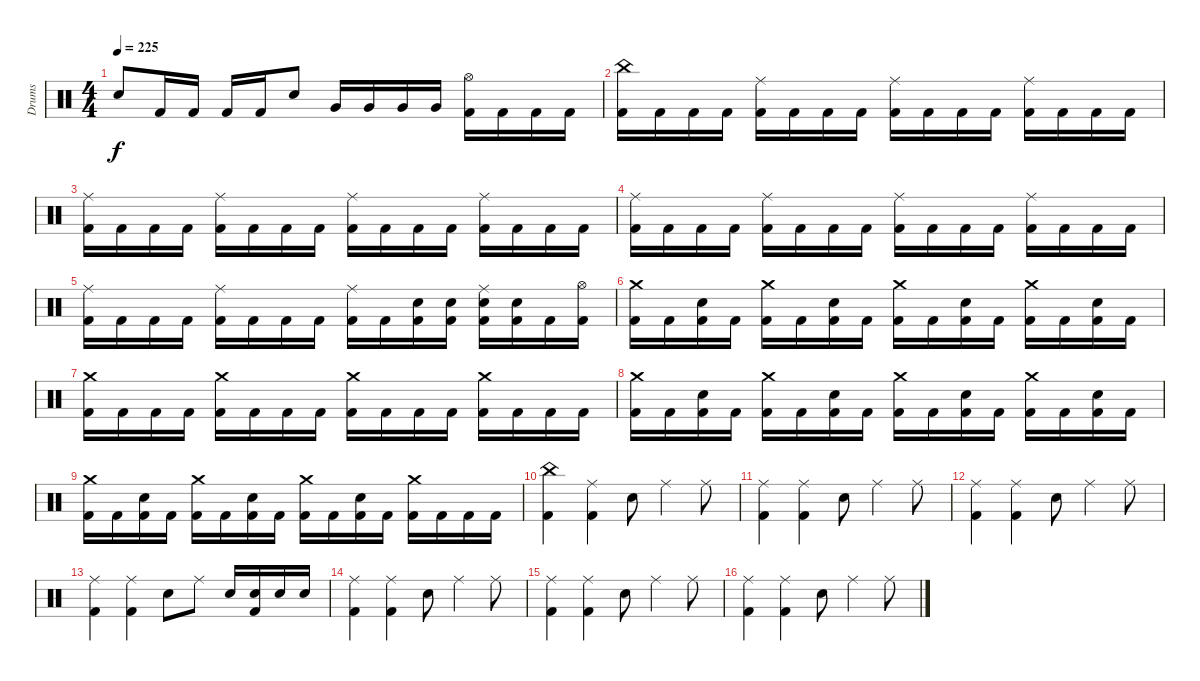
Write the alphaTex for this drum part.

\track ("Drums" "Drums") {instrument percussion}
\staff {score}
\articulation defaults
\ts (4 4)
\tempo 225
\clef neutral
\ks c "Electric Snare (hit)".8{dy f} "Kick (hit) 2".16 "Kick (hit) 2".16 "Kick (hit) 2".16 "Kick (hit) 2".16 "Electric Snare (hit)".8 "Very Low Tom (hit)".16 "Very Low Tom (hit)".16 "Very Low Tom (hit)".16 "Very Low Tom (hit)".16
("Hi-Hat (open)" "Kick (hit) 2").16 "Kick (hit) 2".16 "Kick (hit) 2".16 "Kick (hit) 2".16 |
("China (hit)" "Kick (hit) 2").16 "Kick (hit) 2".16 "Kick (hit) 2".16 "Kick (hit) 2".16 ("Ride (middle)" "Kick (hit) 2").16 "Kick (hit) 2".16 "Kick (hit) 2".16 "Kick (hit) 2".16 ("Ride (middle)" "Kick (hit) 2").16 "Kick (hit) 2".16 "Kick (hit) 2".16 "Kick (hit) 2".16 ("Ride (middle)" "Kick (hit) 2").16 "Kick (hit) 2".16 "Kick (hit) 2".16 "Kick (hit) 2".16 |
("Ride (middle)" "Kick (hit) 2").16 "Kick (hit) 2".16 "Kick (hit) 2".16 "Kick (hit) 2".16 ("Ride (middle)" "Kick (hit) 2").16 "Kick (hit) 2".16 "Kick (hit) 2".16 "Kick (hit) 2".16 ("Ride (middle)" "Kick (hit) 2").16 "Kick (hit) 2".16 "Kick (hit) 2".16 "Kick (hit) 2".16 ("Ride (middle)" "Kick (hit) 2").16 "Kick (hit) 2".16 "Kick (hit) 2".16 "Kick (hit) 2".16 |
("Ride (middle)" "Kick (hit) 2").16 "Kick (hit) 2".16 "Kick (hit) 2".16 "Kick (hit) 2".16 ("Ride (middle)" "Kick (hit) 2").16 "Kick (hit) 2".16 "Kick (hit) 2".16 "Kick (hit) 2".16 ("Ride (middle)" "Kick (hit) 2").16 "Kick (hit) 2".16 "Kick (hit) 2".16 "Kick (hit) 2".16 ("Ride (middle)" "Kick (hit) 2").16 "Kick (hit) 2".16 "Kick (hit) 2".16 "Kick (hit) 2".16 |
("Ride (middle)" "Kick (hit) 2").16 "Kick (hit) 2".16 "Kick (hit) 2".16 "Kick (hit) 2".16 ("Ride (middle)" "Kick (hit) 2").16 "Kick (hit) 2".16 "Kick (hit) 2".16 "Kick (hit) 2".16 ("Ride (middle)" "Kick (hit) 2").16 "Kick (hit) 2".16 ("Electric Snare (hit)" "Kick (hit) 2").16 ("Electric Snare (hit)" "Kick (hit) 2").16 ("Ride (middle)" "Electric Snare (hit)" "Kick (hit) 2").16 ("Electric Snare (hit)" "Kick (hit) 2").16 "Kick (hit) 2".16 ("Hi-Hat (open)" "Kick (hit) 2").16 |
("Crash medium (hit)" "Kick (hit) 2").16 "Kick (hit) 2".16 ("Electric Snare (hit)" "Kick (hit) 2").16 "Kick (hit) 2".16 ("Crash medium (hit)" "Kick (hit) 2").16 "Kick (hit) 2".16 ("Electric Snare (hit)" "Kick (hit) 2").16 "Kick (hit) 2".16 ("Crash medium (hit)" "Kick (hit) 2").16 "Kick (hit) 2".16 ("Electric Snare (hit)" "Kick (hit) 2").16 "Kick (hit) 2".16 ("Crash medium (hit)" "Kick (hit) 2").16 "Kick (hit) 2".16 ("Electric Snare (hit)" "Kick (hit) 2").16 "Kick (hit) 2".16 |
("Crash medium (hit)" "Kick (hit) 2").16 "Kick (hit) 2".16 "Kick (hit) 2".16 "Kick (hit) 2".16 ("Crash medium (hit)" "Kick (hit) 2").16 "Kick (hit) 2".16 "Kick (hit) 2".16 "Kick (hit) 2".16 ("Crash medium (hit)" "Kick (hit) 2").16 "Kick (hit) 2".16 "Kick (hit) 2".16 "Kick (hit) 2".16 ("Crash medium (hit)" "Kick (hit) 2").16 "Kick (hit) 2".16 "Kick (hit) 2".16 "Kick (hit) 2".16 |
("Crash medium (hit)" "Kick (hit) 2").16 "Kick (hit) 2".16 ("Electric Snare (hit)" "Kick (hit) 2").16 "Kick (hit) 2".16 ("Crash medium (hit)" "Kick (hit) 2").16 "Kick (hit) 2".16 ("Electric Snare (hit)" "Kick (hit) 2").16 "Kick (hit) 2".16 ("Crash medium (hit)" "Kick (hit) 2").16 "Kick (hit) 2".16 ("Electric Snare (hit)" "Kick (hit) 2").16 "Kick (hit) 2".16 ("Crash medium (hit)" "Kick (hit) 2").16 "Kick (hit) 2".16 ("Electric Snare (hit)" "Kick (hit) 2").16 "Kick (hit) 2".16 |
("Crash medium (hit)" "Kick (hit) 2").16 "Kick (hit) 2".16 ("Electric Snare (hit)" "Kick (hit) 2").16 "Kick (hit) 2".16 ("Crash medium (hit)" "Kick (hit) 2").16 "Kick (hit) 2".16 ("Electric Snare (hit)" "Kick (hit) 2").16 "Kick (hit) 2".16 ("Crash medium (hit)" "Kick (hit) 2").16 "Kick (hit) 2".16 ("Electric Snare (hit)" "Kick (hit) 2").16 "Kick (hit) 2".16 ("Crash medium (hit)" "Kick (hit) 2").16 "Kick (hit) 2".16 "Kick (hit) 2".16 "Kick (hit) 2".16 |
("China (hit)" "Kick (hit) 2").4 ("Ride (middle)" "Kick (hit) 2").4 "Electric Snare (hit)".8 "Ride (middle)".4 "Ride (middle)".8 |
("Ride (middle)" "Kick (hit) 2").4 ("Ride (middle)" "Kick (hit) 2").4 "Electric Snare (hit)".8 "Ride (middle)".4 "Ride (middle)".8 |
("Ride (middle)" "Kick (hit) 2").4 ("Ride (middle)" "Kick (hit) 2").4 "Electric Snare (hit)".8 "Ride (middle)".4 "Ride (middle)".8 |
("Ride (middle)" "Kick (hit) 2").4 ("Ride (middle)" "Kick (hit) 2").4 "Electric Snare (hit)".8 "Ride (middle)".8 "Electric Snare (hit)".16 ("Electric Snare (hit)" "Kick (hit) 2").16 "Electric Snare (hit)".16 "Electric Snare (hit)".16 |
("Ride (middle)" "Kick (hit) 2").4 ("Ride (middle)" "Kick (hit) 2").4 "Electric Snare (hit)".8 "Ride (middle)".4 "Ride (middle)".8 |
("Ride (middle)" "Kick (hit) 2").4 ("Ride (middle)" "Kick (hit) 2").4 "Electric Snare (hit)".8 "Ride (middle)".4 "Ride (middle)".8 |
("Ride (middle)" "Kick (hit) 2").4 ("Ride (middle)" "Kick (hit) 2").4 "Electric Snare (hit)".8 "Ride (middle)".4 "Ride (middle)".8
